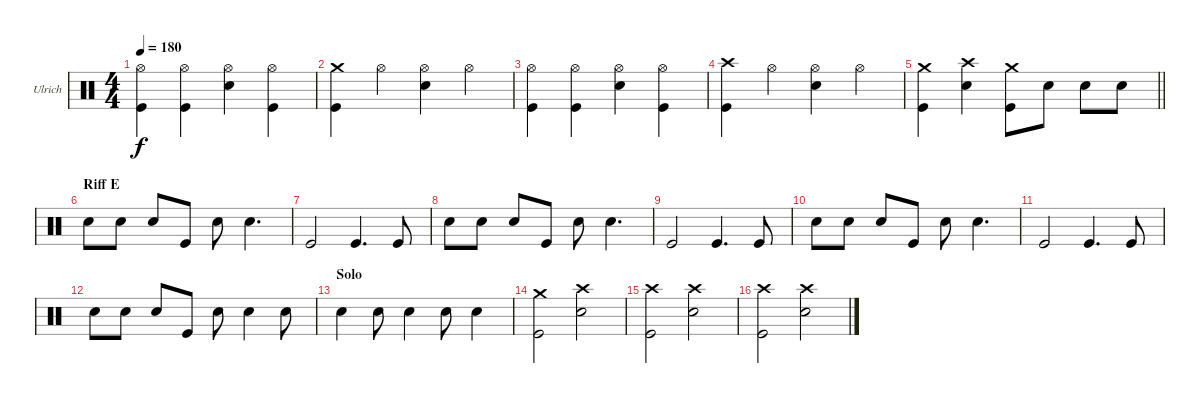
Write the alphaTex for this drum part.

\bracketExtendMode groupsimilarinstruments
\firstSystemTrackNameOrientation horizontal
\otherSystemsTrackNameOrientation horizontal
\track ("Drumkit" "Ulrich") {instrument percussion}
\staff {score}
\articulation defaults
\ts (4 4)
\tempo 180
\clef neutral
\ks c
("Hi-Hat (open)" "Kick (hit)").4{dy f} ("Hi-Hat (open)" "Kick (hit)").4 ("Hi-Hat (open)" "Snare (hit) 2").4 ("Hi-Hat (open)" "Kick (hit)").4 |
("Crash medium (hit)" "Kick (hit)").4 "Hi-Hat (open)".4 ("Hi-Hat (open)" "Snare (hit) 2").4 "Hi-Hat (open)".4 |
("Hi-Hat (open)" "Kick (hit)").4 ("Hi-Hat (open)" "Kick (hit)").4 ("Hi-Hat (open)" "Snare (hit) 2").4 ("Hi-Hat (open)" "Kick (hit)").4 |
("Crash high (hit)" "Kick (hit)").4 "Hi-Hat (open)".4 ("Hi-Hat (open)" "Snare (hit) 2").4 "Hi-Hat (open)".4 |
\barLineRight lightlight
("Crash medium (hit)" "Kick (hit)").4 ("Crash high (hit)" "Snare (hit) 2").4 ("Crash medium (hit)" "Kick (hit)").8 "Snare (hit) 2".8 "Snare (hit) 2".8 "Snare (hit) 2".8 |
\section ("" "Riff E")
"Snare (hit) 2".8 "Snare (hit) 2".8 "Snare (hit) 2".8 "Kick (hit)".8 "Snare (hit) 2".8 "Snare (hit) 2".4{d} |
"Kick (hit)".2 "Kick (hit)".4{d} "Kick (hit)".8 |
"Snare (hit) 2".8 "Snare (hit) 2".8 "Snare (hit) 2".8 "Kick (hit)".8 "Snare (hit) 2".8 "Snare (hit) 2".4{d} |
"Kick (hit)".2 "Kick (hit)".4{d} "Kick (hit)".8 |
"Snare (hit) 2".8 "Snare (hit) 2".8 "Snare (hit) 2".8 "Kick (hit)".8 "Snare (hit) 2".8 "Snare (hit) 2".4{d} |
"Kick (hit)".2 "Kick (hit)".4{d} "Kick (hit)".8 |
"Snare (hit) 2".8 "Snare (hit) 2".8 "Snare (hit) 2".8 "Kick (hit)".8 "Snare (hit) 2".8 "Snare (hit) 2".4 "Snare (hit) 2".8 |
\section ("" "Solo")
"Snare (hit) 2".4 "Snare (hit) 2".8 "Snare (hit) 2".4 "Snare (hit) 2".8 "Snare (hit) 2".4 |
("Crash medium (hit)" "Kick (hit)").2 ("Crash high (hit)" "Snare (hit) 2").2 |
("Crash high (hit)" "Kick (hit)").2 ("Crash high (hit)" "Snare (hit) 2").2 |
("Crash high (hit)" "Kick (hit)").2 ("Crash high (hit)" "Snare (hit) 2").2
